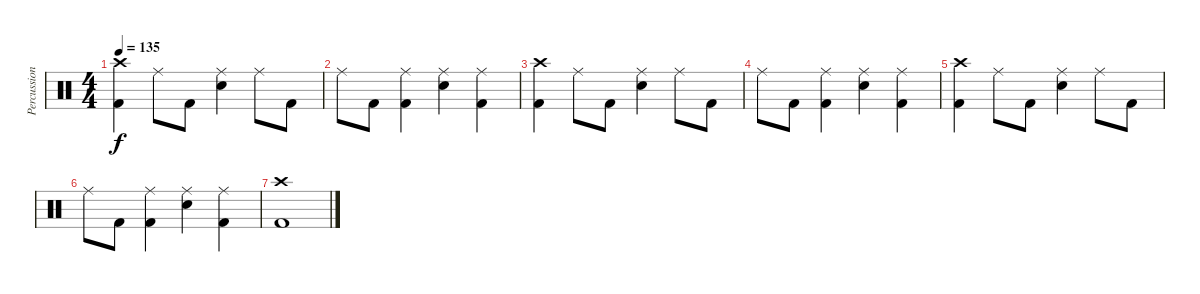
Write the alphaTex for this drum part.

\track ("Percussion" "Percussion") {instrument percussion}
\staff {score}
\articulation defaults
\ts (4 4)
\tempo 135
\clef neutral
\ks c
("Crash high (hit)" "Kick (hit) 2").4{dy f} "Ride (middle)".8 "Kick (hit) 2".8 ("Ride (middle)" "Electric Snare (hit)").4 "Ride (middle)".8 "Kick (hit) 2".8 |
"Ride (middle)".8 "Kick (hit) 2".8 ("Ride (middle)" "Kick (hit) 2").4 ("Ride (middle)" "Electric Snare (hit)").4 ("Ride (middle)" "Kick (hit) 2").4 |
("Crash high (hit)" "Kick (hit) 2").4 "Ride (middle)".8 "Kick (hit) 2".8 ("Ride (middle)" "Electric Snare (hit)").4 "Ride (middle)".8 "Kick (hit) 2".8 |
"Ride (middle)".8 "Kick (hit) 2".8 ("Ride (middle)" "Kick (hit) 2").4 ("Ride (middle)" "Electric Snare (hit)").4 ("Ride (middle)" "Kick (hit) 2").4 |
("Crash high (hit)" "Kick (hit) 2").4 "Ride (middle)".8 "Kick (hit) 2".8 ("Ride (middle)" "Electric Snare (hit)").4 "Ride (middle)".8 "Kick (hit) 2".8 |
"Ride (middle)".8 "Kick (hit) 2".8 ("Ride (middle)" "Kick (hit) 2").4 ("Ride (middle)" "Electric Snare (hit)").4 ("Ride (middle)" "Kick (hit) 2").4 |
("Crash high (hit)" "Kick (hit) 2").1
